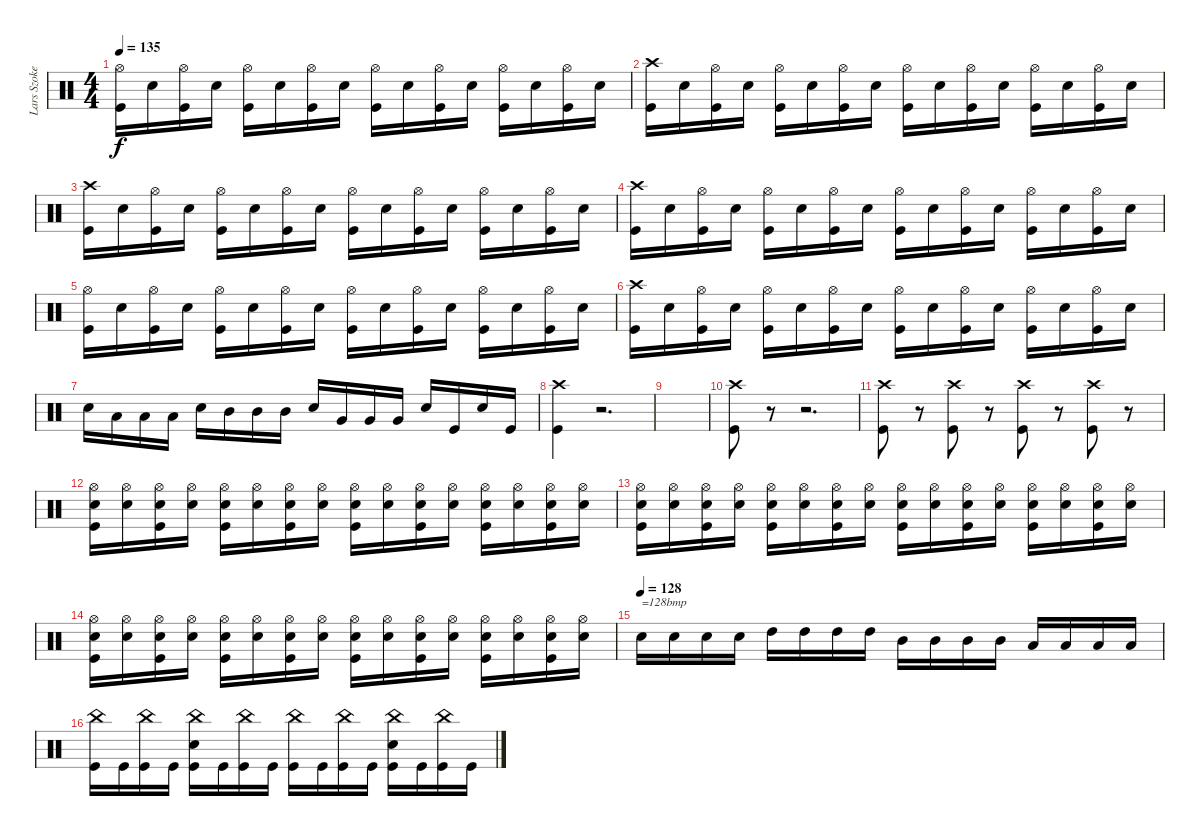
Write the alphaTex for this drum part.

\track ("Lars Szoke" "Lars Szoke") {instrument percussion}
\staff {score}
\articulation defaults
\ts (4 4)
\tempo 135
\clef neutral
\ks c
("Hi-Hat (open)" "Kick (hit)").16{dy f} "Snare (hit) 2".16 ("Hi-Hat (open)" "Kick (hit)").16 "Snare (hit) 2".16 ("Hi-Hat (open)" "Kick (hit)").16 "Snare (hit) 2".16 ("Hi-Hat (open)" "Kick (hit)").16 "Snare (hit) 2".16 ("Hi-Hat (open)" "Kick (hit)").16 "Snare (hit) 2".16 ("Hi-Hat (open)" "Kick (hit)").16 "Snare (hit) 2".16 ("Hi-Hat (open)" "Kick (hit)").16 "Snare (hit) 2".16 ("Hi-Hat (open)" "Kick (hit)").16 "Snare (hit) 2".16 |
("Crash high (hit)" "Kick (hit)").16 "Snare (hit) 2".16 ("Hi-Hat (open)" "Kick (hit)").16 "Snare (hit) 2".16 ("Hi-Hat (open)" "Kick (hit)").16 "Snare (hit) 2".16 ("Hi-Hat (open)" "Kick (hit)").16 "Snare (hit) 2".16 ("Hi-Hat (open)" "Kick (hit)").16 "Snare (hit) 2".16 ("Hi-Hat (open)" "Kick (hit)").16 "Snare (hit) 2".16 ("Hi-Hat (open)" "Kick (hit)").16 "Snare (hit) 2".16 ("Hi-Hat (open)" "Kick (hit)").16 "Snare (hit) 2".16 |
("Crash high (hit)" "Kick (hit)").16 "Snare (hit) 2".16 ("Hi-Hat (open)" "Kick (hit)").16 "Snare (hit) 2".16 ("Hi-Hat (open)" "Kick (hit)").16 "Snare (hit) 2".16 ("Hi-Hat (open)" "Kick (hit)").16 "Snare (hit) 2".16 ("Hi-Hat (open)" "Kick (hit)").16 "Snare (hit) 2".16 ("Hi-Hat (open)" "Kick (hit)").16 "Snare (hit) 2".16 ("Hi-Hat (open)" "Kick (hit)").16 "Snare (hit) 2".16 ("Hi-Hat (open)" "Kick (hit)").16 "Snare (hit) 2".16 |
("Crash high (hit)" "Kick (hit)").16 "Snare (hit) 2".16 ("Hi-Hat (open)" "Kick (hit)").16 "Snare (hit) 2".16 ("Hi-Hat (open)" "Kick (hit)").16 "Snare (hit) 2".16 ("Hi-Hat (open)" "Kick (hit)").16 "Snare (hit) 2".16 ("Hi-Hat (open)" "Kick (hit)").16 "Snare (hit) 2".16 ("Hi-Hat (open)" "Kick (hit)").16 "Snare (hit) 2".16 ("Hi-Hat (open)" "Kick (hit)").16 "Snare (hit) 2".16 ("Hi-Hat (open)" "Kick (hit)").16 "Snare (hit) 2".16 |
("Hi-Hat (open)" "Kick (hit)").16 "Snare (hit) 2".16 ("Hi-Hat (open)" "Kick (hit)").16 "Snare (hit) 2".16 ("Hi-Hat (open)" "Kick (hit)").16 "Snare (hit) 2".16 ("Hi-Hat (open)" "Kick (hit)").16 "Snare (hit) 2".16 ("Hi-Hat (open)" "Kick (hit)").16 "Snare (hit) 2".16 ("Hi-Hat (open)" "Kick (hit)").16 "Snare (hit) 2".16 ("Hi-Hat (open)" "Kick (hit)").16 "Snare (hit) 2".16 ("Hi-Hat (open)" "Kick (hit)").16 "Snare (hit) 2".16 |
("Crash high (hit)" "Kick (hit)").16 "Snare (hit) 2".16 ("Hi-Hat (open)" "Kick (hit)").16 "Snare (hit) 2".16 ("Hi-Hat (open)" "Kick (hit)").16 "Snare (hit) 2".16 ("Hi-Hat (open)" "Kick (hit)").16 "Snare (hit) 2".16 ("Hi-Hat (open)" "Kick (hit)").16 "Snare (hit) 2".16 ("Hi-Hat (open)" "Kick (hit)").16 "Snare (hit) 2".16 ("Hi-Hat (open)" "Kick (hit)").16 "Snare (hit) 2".16 ("Hi-Hat (open)" "Kick (hit)").16 "Snare (hit) 2".16 |
"Snare (hit) 2".16 "Low Tom (hit)".16 "Low Tom (hit)".16 "Low Tom (hit)".16 "Snare (hit) 2".16 "Mid Tom (hit)".16 "Mid Tom (hit)".16 "Mid Tom (hit)".16 "Snare (hit) 2".16 "Very Low Tom (hit)".16 "Very Low Tom (hit)".16 "Very Low Tom (hit)".16 "Snare (hit) 2".16 "Kick (hit)".16 "Snare (hit) 2".16 "Kick (hit)".16 |
("Crash high (hit)" "Kick (hit)").4 r.2{d} |
|
("Crash high (hit)" "Kick (hit)").8 r.8 r.2{d} |
("Crash high (hit)" "Kick (hit)").8 r.8 ("Crash high (hit)" "Kick (hit)").8 r.8 ("Crash high (hit)" "Kick (hit)").8 r.8 ("Crash high (hit)" "Kick (hit)").8 r.8 |
("Hi-Hat (open)" "Snare (hit) 2" "Kick (hit)").16 ("Hi-Hat (open)" "Snare (hit) 2").16 ("Hi-Hat (open)" "Snare (hit) 2" "Kick (hit)").16 ("Hi-Hat (open)" "Snare (hit) 2").16 ("Hi-Hat (open)" "Snare (hit) 2" "Kick (hit)").16 ("Hi-Hat (open)" "Snare (hit) 2").16 ("Hi-Hat (open)" "Snare (hit) 2" "Kick (hit)").16 ("Hi-Hat (open)" "Snare (hit) 2").16 ("Hi-Hat (open)" "Snare (hit) 2" "Kick (hit)").16 ("Hi-Hat (open)" "Snare (hit) 2").16 ("Hi-Hat (open)" "Snare (hit) 2" "Kick (hit)").16 ("Hi-Hat (open)" "Snare (hit) 2").16 ("Hi-Hat (open)" "Snare (hit) 2" "Kick (hit)").16 ("Hi-Hat (open)" "Snare (hit) 2").16 ("Hi-Hat (open)" "Snare (hit) 2" "Kick (hit)").16 ("Hi-Hat (open)" "Snare (hit) 2").16 |
("Hi-Hat (open)" "Snare (hit) 2" "Kick (hit)").16 ("Hi-Hat (open)" "Snare (hit) 2").16 ("Hi-Hat (open)" "Snare (hit) 2" "Kick (hit)").16 ("Hi-Hat (open)" "Snare (hit) 2").16 ("Hi-Hat (open)" "Snare (hit) 2" "Kick (hit)").16 ("Hi-Hat (open)" "Snare (hit) 2").16 ("Hi-Hat (open)" "Snare (hit) 2" "Kick (hit)").16 ("Hi-Hat (open)" "Snare (hit) 2").16 ("Hi-Hat (open)" "Snare (hit) 2" "Kick (hit)").16 ("Hi-Hat (open)" "Snare (hit) 2").16 ("Hi-Hat (open)" "Snare (hit) 2" "Kick (hit)").16 ("Hi-Hat (open)" "Snare (hit) 2").16 ("Hi-Hat (open)" "Snare (hit) 2" "Kick (hit)").16 ("Hi-Hat (open)" "Snare (hit) 2").16 ("Hi-Hat (open)" "Snare (hit) 2" "Kick (hit)").16 ("Hi-Hat (open)" "Snare (hit) 2").16 |
("Hi-Hat (open)" "Snare (hit) 2" "Kick (hit)").16 ("Hi-Hat (open)" "Snare (hit) 2").16 ("Hi-Hat (open)" "Snare (hit) 2" "Kick (hit)").16 ("Hi-Hat (open)" "Snare (hit) 2").16 ("Hi-Hat (open)" "Snare (hit) 2" "Kick (hit)").16 ("Hi-Hat (open)" "Snare (hit) 2").16 ("Hi-Hat (open)" "Snare (hit) 2" "Kick (hit)").16 ("Hi-Hat (open)" "Snare (hit) 2").16 ("Hi-Hat (open)" "Snare (hit) 2" "Kick (hit)").16 ("Hi-Hat (open)" "Snare (hit) 2").16 ("Hi-Hat (open)" "Snare (hit) 2" "Kick (hit)").16 ("Hi-Hat (open)" "Snare (hit) 2").16 ("Hi-Hat (open)" "Snare (hit) 2" "Kick (hit)").16 ("Hi-Hat (open)" "Snare (hit) 2").16 ("Hi-Hat (open)" "Snare (hit) 2" "Kick (hit)").16 ("Hi-Hat (open)" "Snare (hit) 2").16 |
\tempo (128)
"Snare (hit) 2".16{txt "=128bmp"} "Snare (hit) 2".16 "Snare (hit) 2".16 "Snare (hit) 2".16 "High Tom (hit)".16 "High Tom (hit)".16 "High Tom (hit)".16 "High Tom (hit)".16 "Mid Tom (hit)".16 "Mid Tom (hit)".16 "Mid Tom (hit)".16 "Mid Tom (hit)".16 "Low Tom (hit)".16 "Low Tom (hit)".16 "Low Tom (hit)".16 "Low Tom (hit)".16 |
("China (hit)" "Kick (hit)").16 "Kick (hit)".16 ("China (hit)" "Kick (hit)").16 "Kick (hit)".16 ("China (hit)" "Snare (hit) 2" "Kick (hit)").16 "Kick (hit)".16 ("China (hit)" "Kick (hit)").16 "Kick (hit)".16 ("China (hit)" "Kick (hit)").16 "Kick (hit)".16 ("China (hit)" "Kick (hit)").16 "Kick (hit)".16 ("China (hit)" "Snare (hit) 2" "Kick (hit)").16 "Kick (hit)".16 ("China (hit)" "Kick (hit)").16 "Kick (hit)".16
